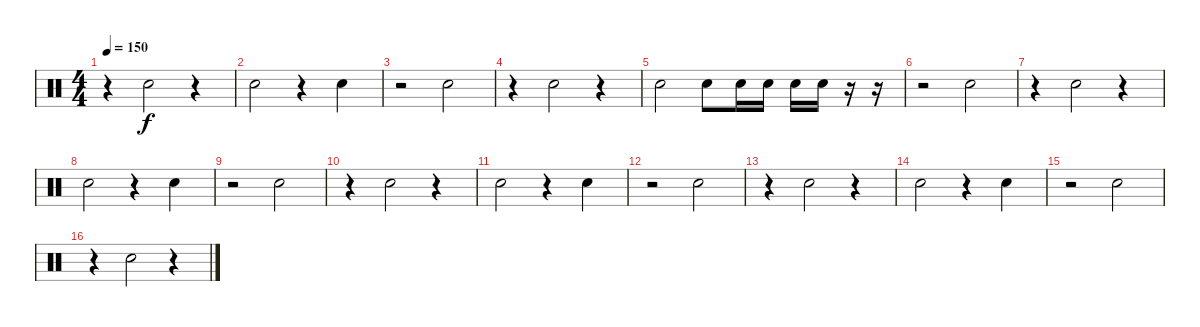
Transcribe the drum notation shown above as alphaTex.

\track "" {instrument percussion}
\staff {score}
\articulation defaults
\ts (4 4)
\tempo 150
\clef neutral
\ks c
r.4{dy f} "Electric Snare (hit)".2 r.4 |
"Electric Snare (hit)".2 r.4 "Electric Snare (hit)".4 |
r.2 "Electric Snare (hit)".2 |
r.4 "Electric Snare (hit)".2 r.4 |
"Electric Snare (hit)".2 "Electric Snare (hit)".8 "Electric Snare (hit)".16 "Electric Snare (hit)".16 "Electric Snare (hit)".16 "Electric Snare (hit)".16 r.16 r.16 |
r.2 "Electric Snare (hit)".2 |
r.4 "Electric Snare (hit)".2 r.4 |
"Electric Snare (hit)".2 r.4 "Electric Snare (hit)".4 |
r.2 "Electric Snare (hit)".2 |
r.4 "Electric Snare (hit)".2 r.4 |
"Electric Snare (hit)".2 r.4 "Electric Snare (hit)".4 |
r.2 "Electric Snare (hit)".2 |
r.4 "Electric Snare (hit)".2 r.4 |
"Electric Snare (hit)".2 r.4 "Electric Snare (hit)".4 |
r.2 "Electric Snare (hit)".2 |
r.4 "Electric Snare (hit)".2 r.4
